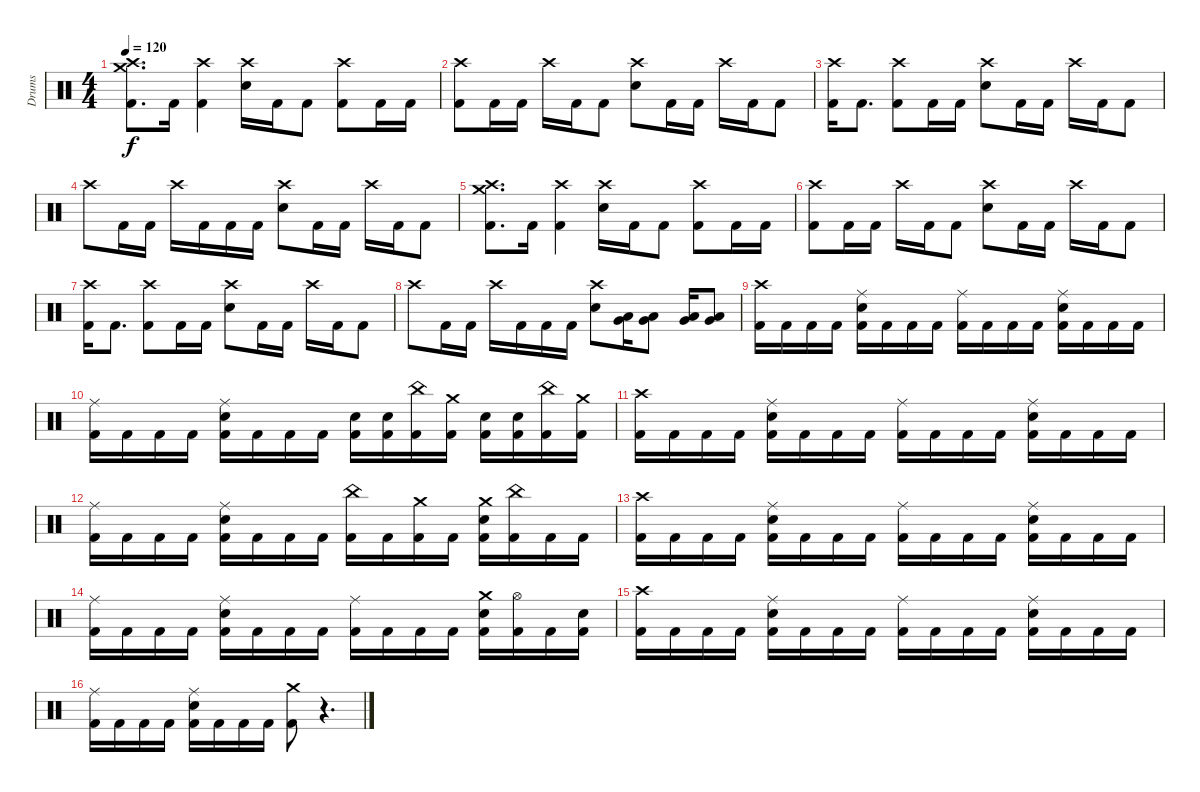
\track ("Drums" "Drums") {instrument percussion}
\staff {score}
\articulation defaults
\ts (4 4)
\tempo 120
\clef neutral
\ks c
("Crash high (hit)" "Crash medium (hit)" "Kick (hit) 2").8{d dy f volume 16} "Kick (hit) 2".16 ("Crash high (hit)" "Kick (hit) 2").4 ("Crash high (hit)" "Electric Snare (hit)").16 "Kick (hit) 2".16 "Kick (hit) 2".8 ("Crash high (hit)" "Kick (hit) 2").8 "Kick (hit) 2".16 "Kick (hit) 2".16 |
("Crash high (hit)" "Kick (hit) 2").8 "Kick (hit) 2".16 "Kick (hit) 2".16 "Crash high (hit)".16 "Kick (hit) 2".16 "Kick (hit) 2".8 ("Crash high (hit)" "Electric Snare (hit)").8 "Kick (hit) 2".16 "Kick (hit) 2".16 "Crash high (hit)".16 "Kick (hit) 2".16 "Kick (hit) 2".8 |
("Crash high (hit)" "Kick (hit) 2").16 "Kick (hit) 2".8{d} ("Crash high (hit)" "Kick (hit) 2").8 "Kick (hit) 2".16 "Kick (hit) 2".16 ("Crash high (hit)" "Electric Snare (hit)").8 "Kick (hit) 2".16 "Kick (hit) 2".16 "Crash high (hit)".16 "Kick (hit) 2".16 "Kick (hit) 2".8 |
"Crash high (hit)".8 "Kick (hit) 2".16 "Kick (hit) 2".16 "Crash high (hit)".16 "Kick (hit) 2".16 "Kick (hit) 2".16 "Kick (hit) 2".16 ("Crash high (hit)" "Electric Snare (hit)").8 "Kick (hit) 2".16 "Kick (hit) 2".16 "Crash high (hit)".16 "Kick (hit) 2".16 "Kick (hit) 2".8 |
("Crash high (hit)" "Crash medium (hit)" "Kick (hit) 2").8{d} "Kick (hit) 2".16 ("Crash high (hit)" "Kick (hit) 2").4 ("Crash high (hit)" "Electric Snare (hit)").16 "Kick (hit) 2".16 "Kick (hit) 2".8 ("Crash high (hit)" "Kick (hit) 2").8 "Kick (hit) 2".16 "Kick (hit) 2".16 |
("Crash high (hit)" "Kick (hit) 2").8 "Kick (hit) 2".16 "Kick (hit) 2".16 "Crash high (hit)".16 "Kick (hit) 2".16 "Kick (hit) 2".8 ("Crash high (hit)" "Electric Snare (hit)").8 "Kick (hit) 2".16 "Kick (hit) 2".16 "Crash high (hit)".16 "Kick (hit) 2".16 "Kick (hit) 2".8 |
("Crash high (hit)" "Kick (hit) 2").16 "Kick (hit) 2".8{d} ("Crash high (hit)" "Kick (hit) 2").8 "Kick (hit) 2".16 "Kick (hit) 2".16 ("Crash high (hit)" "Electric Snare (hit)").8 "Kick (hit) 2".16 "Kick (hit) 2".16 "Crash high (hit)".16 "Kick (hit) 2".16 "Kick (hit) 2".8 |
"Crash high (hit)".8 "Kick (hit) 2".16 "Kick (hit) 2".16 "Crash high (hit)".16 "Kick (hit) 2".16 "Kick (hit) 2".16 "Kick (hit) 2".16 ("Crash high (hit)" "Electric Snare (hit)").8 ("Very Low Tom (hit)" "Low Tom (hit)").16 ("Very Low Tom (hit)" "Low Tom (hit)").8 ("Very Low Tom (hit)" "Low Floor Tom (hit)").16 ("Very Low Tom (hit)" "Low Floor Tom (hit)").8 |
("Crash high (hit)" "Kick (hit) 2").16 "Kick (hit) 2".16 "Kick (hit) 2".16 "Kick (hit) 2".16 ("Ride (middle)" "Electric Snare (hit)" "Kick (hit) 2").16 "Kick (hit) 2".16 "Kick (hit) 2".16 "Kick (hit) 2".16 ("Ride (middle)" "Kick (hit) 2").16 "Kick (hit) 2".16 "Kick (hit) 2".16 "Kick (hit) 2".16 ("Ride (middle)" "Electric Snare (hit)" "Kick (hit) 2").16 "Kick (hit) 2".16 "Kick (hit) 2".16 "Kick (hit) 2".16 |
("Ride (middle)" "Kick (hit) 2").16 "Kick (hit) 2".16 "Kick (hit) 2".16 "Kick (hit) 2".16 ("Ride (middle)" "Electric Snare (hit)" "Kick (hit) 2").16 "Kick (hit) 2".16 "Kick (hit) 2".16 "Kick (hit) 2".16 ("Electric Snare (hit)" "Kick (hit) 2").16 ("Electric Snare (hit)" "Kick (hit) 2").16 ("China (hit)" "Kick (hit) 2").16 ("Crash medium (hit)" "Kick (hit) 2").16 ("Electric Snare (hit)" "Kick (hit) 2").16 ("Electric Snare (hit)" "Kick (hit) 2").16 ("China (hit)" "Kick (hit) 2").16 ("Crash medium (hit)" "Kick (hit) 2").16 |
("Crash high (hit)" "Kick (hit) 2").16 "Kick (hit) 2".16 "Kick (hit) 2".16 "Kick (hit) 2".16 ("Ride (middle)" "Electric Snare (hit)" "Kick (hit) 2").16 "Kick (hit) 2".16 "Kick (hit) 2".16 "Kick (hit) 2".16 ("Ride (middle)" "Kick (hit) 2").16 "Kick (hit) 2".16 "Kick (hit) 2".16 "Kick (hit) 2".16 ("Ride (middle)" "Electric Snare (hit)" "Kick (hit) 2").16 "Kick (hit) 2".16 "Kick (hit) 2".16 "Kick (hit) 2".16 |
("Ride (middle)" "Kick (hit) 2").16 "Kick (hit) 2".16 "Kick (hit) 2".16 "Kick (hit) 2".16 ("Ride (middle)" "Electric Snare (hit)" "Kick (hit) 2").16 "Kick (hit) 2".16 "Kick (hit) 2".16 "Kick (hit) 2".16 ("China (hit)" "Kick (hit) 2").16 "Kick (hit) 2".16 ("Crash medium (hit)" "Kick (hit) 2").16 "Kick (hit) 2".16 ("Crash medium (hit)" "Electric Snare (hit)" "Kick (hit) 2").16 ("China (hit)" "Kick (hit) 2").16 "Kick (hit) 2".16 "Kick (hit) 2".16 |
("Crash high (hit)" "Kick (hit) 2").16 "Kick (hit) 2".16 "Kick (hit) 2".16 "Kick (hit) 2".16 ("Ride (middle)" "Electric Snare (hit)" "Kick (hit) 2").16 "Kick (hit) 2".16 "Kick (hit) 2".16 "Kick (hit) 2".16 ("Ride (middle)" "Kick (hit) 2").16 "Kick (hit) 2".16 "Kick (hit) 2".16 "Kick (hit) 2".16 ("Ride (middle)" "Electric Snare (hit)" "Kick (hit) 2").16 "Kick (hit) 2".16 "Kick (hit) 2".16 "Kick (hit) 2".16 |
("Ride (middle)" "Kick (hit) 2").16 "Kick (hit) 2".16 "Kick (hit) 2".16 "Kick (hit) 2".16 ("Ride (middle)" "Electric Snare (hit)" "Kick (hit) 2").16 "Kick (hit) 2".16 "Kick (hit) 2".16 "Kick (hit) 2".16 ("Ride (middle)" "Kick (hit) 2").16 "Kick (hit) 2".16 "Kick (hit) 2".16 "Kick (hit) 2".16 ("Crash medium (hit)" "Electric Snare (hit)" "Kick (hit) 2").16 ("Hi-Hat (open)" "Kick (hit) 2").16 "Kick (hit) 2".16 ("Electric Snare (hit)" "Kick (hit) 2").16 |
("Crash high (hit)" "Kick (hit) 2").16 "Kick (hit) 2".16 "Kick (hit) 2".16 "Kick (hit) 2".16 ("Ride (middle)" "Electric Snare (hit)" "Kick (hit) 2").16 "Kick (hit) 2".16 "Kick (hit) 2".16 "Kick (hit) 2".16 ("Ride (middle)" "Kick (hit) 2").16 "Kick (hit) 2".16 "Kick (hit) 2".16 "Kick (hit) 2".16 ("Ride (middle)" "Electric Snare (hit)" "Kick (hit) 2").16 "Kick (hit) 2".16 "Kick (hit) 2".16 "Kick (hit) 2".16 |
("Ride (middle)" "Kick (hit) 2").16 "Kick (hit) 2".16 "Kick (hit) 2".16 "Kick (hit) 2".16 ("Ride (middle)" "Electric Snare (hit)" "Kick (hit) 2").16 "Kick (hit) 2".16 "Kick (hit) 2".16 "Kick (hit) 2".16 ("Crash medium (hit)" "Kick (hit) 2").8 r.4{d volume 0}
